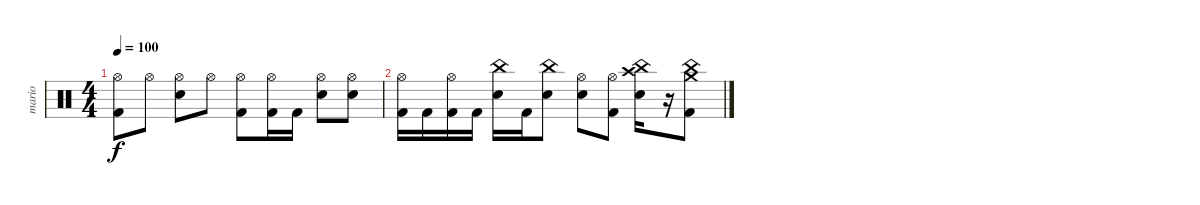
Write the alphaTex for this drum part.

\track ("mario" "mario") {instrument percussion}
\staff {score}
\articulation defaults
\ts (4 4)
\tempo 100
\clef neutral
\ks c
("Hi-Hat (open)" "Kick (hit) 2").8{dy f} "Hi-Hat (open)".8 ("Hi-Hat (open)" "Electric Snare (hit)").8 "Hi-Hat (open)".8 ("Hi-Hat (open)" "Kick (hit) 2").8 ("Hi-Hat (open)" "Kick (hit) 2").16 "Kick (hit) 2".16 ("Hi-Hat (open)" "Electric Snare (hit)").8 ("Hi-Hat (open)" "Electric Snare (hit)").8 |
("Hi-Hat (open)" "Kick (hit) 2").16 "Kick (hit) 2".16 ("Hi-Hat (open)" "Kick (hit) 2").16 "Kick (hit) 2".16 ("China (hit)" "Electric Snare (hit)").16 "Kick (hit) 2".16 ("China (hit)" "Electric Snare (hit)").8 ("Hi-Hat (open)" "Electric Snare (hit)").8 ("Hi-Hat (open)" "Kick (hit) 2").8 ("Crash high (hit)" "China (hit)" "Electric Snare (hit)").16 r.16 ("Crash medium (hit)" "China (hit)" "Kick (hit) 2").8
